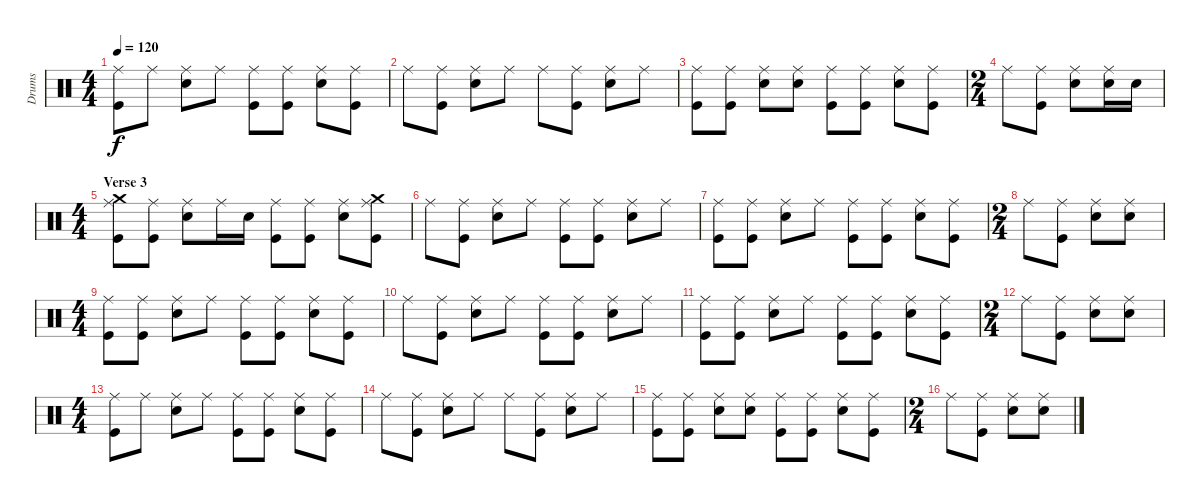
\track ("Drums" "Drums") {instrument percussion}
\staff {score}
\articulation defaults
\ts (4 4)
\tempo 120
\clef neutral
\ks c
("Ride (middle)" "Kick (hit)").8{dy f} "Ride (middle)".8 ("Ride (middle)" "Snare (hit) 2").8 "Ride (middle)".8 ("Ride (middle)" "Kick (hit)").8 ("Ride (middle)" "Kick (hit)").8 ("Ride (middle)" "Snare (hit) 2").8 ("Ride (middle)" "Kick (hit)").8 |
"Ride (middle)".8 ("Ride (middle)" "Kick (hit)").8 ("Ride (middle)" "Snare (hit) 2").8 "Ride (middle)".8 "Ride (middle)".8 ("Ride (middle)" "Kick (hit)").8 ("Ride (middle)" "Snare (hit) 2").8 "Ride (middle)".8 |
("Ride (middle)" "Kick (hit)").8 ("Ride (middle)" "Kick (hit)").8 ("Ride (middle)" "Snare (hit) 2").8 ("Ride (middle)" "Snare (hit) 2").8 ("Ride (middle)" "Kick (hit)").8 ("Ride (middle)" "Kick (hit)").8 ("Ride (middle)" "Snare (hit) 2").8 ("Ride (middle)" "Kick (hit)").8 |
\ts (2 4)
"Ride (middle)".8 ("Ride (middle)" "Kick (hit)").8 ("Ride (middle)" "Snare (hit) 2").8 ("Ride (middle)" "Snare (hit) 2").16 "Snare (hit) 2".16 |
\ts (4 4)
\section ("" "Verse 3")
("Ride (middle)" "Crash medium (hit)" "Kick (hit)").8 ("Ride (middle)" "Kick (hit)").8 ("Ride (middle)" "Snare (hit) 2").8 "Ride (middle)".16 "Snare (hit) 2".16 ("Ride (middle)" "Kick (hit)").8 ("Ride (middle)" "Kick (hit)").8 ("Ride (middle)" "Snare (hit) 2").8 ("Ride (middle)" "Crash medium (hit)" "Kick (hit)").8 |
"Ride (middle)".8 ("Ride (middle)" "Kick (hit)").8 ("Ride (middle)" "Snare (hit) 2").8 "Ride (middle)".8 ("Ride (middle)" "Kick (hit)").8 ("Ride (middle)" "Kick (hit)").8 ("Ride (middle)" "Snare (hit) 2").8 "Ride (middle)".8 |
("Ride (middle)" "Kick (hit)").8 ("Ride (middle)" "Kick (hit)").8 ("Ride (middle)" "Snare (hit) 2").8 "Ride (middle)".8 ("Ride (middle)" "Kick (hit)").8 ("Ride (middle)" "Kick (hit)").8 ("Ride (middle)" "Snare (hit) 2").8 ("Ride (middle)" "Kick (hit)").8 |
\ts (2 4)
"Ride (middle)".8 ("Ride (middle)" "Kick (hit)").8 ("Ride (middle)" "Snare (hit) 2").8 ("Ride (middle)" "Snare (hit) 2").8 |
\ts (4 4)
("Ride (middle)" "Kick (hit)").8 ("Ride (middle)" "Kick (hit)").8 ("Ride (middle)" "Snare (hit) 2").8 "Ride (middle)".8 ("Ride (middle)" "Kick (hit)").8 ("Ride (middle)" "Kick (hit)").8 ("Ride (middle)" "Snare (hit) 2").8 ("Ride (middle)" "Kick (hit)").8 |
"Ride (middle)".8 ("Ride (middle)" "Kick (hit)").8 ("Ride (middle)" "Snare (hit) 2").8 "Ride (middle)".8 ("Ride (middle)" "Kick (hit)").8 ("Ride (middle)" "Kick (hit)").8 ("Ride (middle)" "Snare (hit) 2").8 "Ride (middle)".8 |
("Ride (middle)" "Kick (hit)").8 ("Ride (middle)" "Kick (hit)").8 ("Ride (middle)" "Snare (hit) 2").8 "Ride (middle)".8 ("Ride (middle)" "Kick (hit)").8 ("Ride (middle)" "Kick (hit)").8 ("Ride (middle)" "Snare (hit) 2").8 ("Ride (middle)" "Kick (hit)").8 |
\ts (2 4)
"Ride (middle)".8 ("Ride (middle)" "Kick (hit)").8 ("Ride (middle)" "Snare (hit) 2").8 ("Ride (middle)" "Snare (hit) 2").8 |
\ts (4 4)
("Ride (middle)" "Kick (hit)").8 "Ride (middle)".8 ("Ride (middle)" "Snare (hit) 2").8 "Ride (middle)".8 ("Ride (middle)" "Kick (hit)").8 ("Ride (middle)" "Kick (hit)").8 ("Ride (middle)" "Snare (hit) 2").8 ("Ride (middle)" "Kick (hit)").8 |
"Ride (middle)".8 ("Ride (middle)" "Kick (hit)").8 ("Ride (middle)" "Snare (hit) 2").8 "Ride (middle)".8 "Ride (middle)".8 ("Ride (middle)" "Kick (hit)").8 ("Ride (middle)" "Snare (hit) 2").8 "Ride (middle)".8 |
("Ride (middle)" "Kick (hit)").8 ("Ride (middle)" "Kick (hit)").8 ("Ride (middle)" "Snare (hit) 2").8 ("Ride (middle)" "Snare (hit) 2").8 ("Ride (middle)" "Kick (hit)").8 ("Ride (middle)" "Kick (hit)").8 ("Ride (middle)" "Snare (hit) 2").8 ("Ride (middle)" "Kick (hit)").8 |
\ts (2 4)
"Ride (middle)".8 ("Ride (middle)" "Kick (hit)").8 ("Ride (middle)" "Snare (hit) 2").8 ("Ride (middle)" "Snare (hit) 2").8
